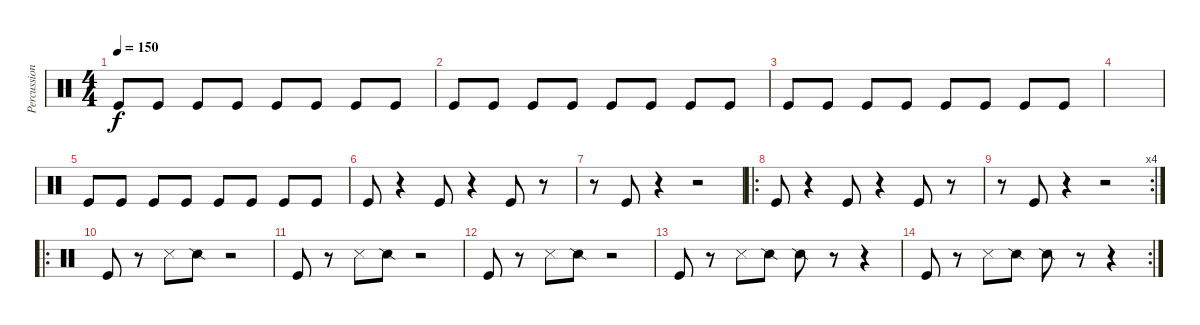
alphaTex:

\track ("Percussions" "Percussion") {instrument percussion}
\staff {score}
\articulation defaults
\ts (4 4)
\tempo 150
\clef neutral
\ks c "Kick (hit)".8{dy f} "Kick (hit)".8 "Kick (hit)".8 "Kick (hit)".8 "Kick (hit)".8 "Kick (hit)".8 "Kick (hit)".8 "Kick (hit)".8
|
"Kick (hit)".8 "Kick (hit)".8 "Kick (hit)".8 "Kick (hit)".8 "Kick (hit)".8 "Kick (hit)".8 "Kick (hit)".8 "Kick (hit)".8 |
"Kick (hit)".8 "Kick (hit)".8 "Kick (hit)".8 "Kick (hit)".8 "Kick (hit)".8 "Kick (hit)".8 "Kick (hit)".8 "Kick (hit)".8 |
|
"Kick (hit)".8 "Kick (hit)".8 "Kick (hit)".8 "Kick (hit)".8 "Kick (hit)".8 "Kick (hit)".8 "Kick (hit)".8 "Kick (hit)".8 |
"Kick (hit)".8 r.4 "Kick (hit)".8 r.4 "Kick (hit)".8 r.8 |
r.8 "Kick (hit)".8 r.4 r.2 |
\ro "Kick (hit)".8
r.4 "Kick (hit)".8 r.4 "Kick (hit)".8 r.8 |
\rc 4
r.8 "Kick (hit)".8 r.4 r.2 |
\ro "Kick (hit)".8
r.8 "Snare (side stick) 3".8 "Snare (side stick) 2".8 r.2 |
"Kick (hit)".8 r.8 "Snare (side stick) 3".8 "Snare (side stick) 2".8 r.2 |
"Kick (hit)".8 r.8 "Snare (side stick) 3".8 "Snare (side stick) 2".8 r.2 |
"Kick (hit)".8 r.8 "Snare (side stick) 3".8 "Snare (side stick) 2".8 "Snare (side stick) 2".8 r.8 r.4 |
\rc 2 "Kick (hit)".8
r.8 "Snare (side stick) 3".8 "Snare (side stick) 2".8 "Snare (side stick) 2".8 r.8 r.4
